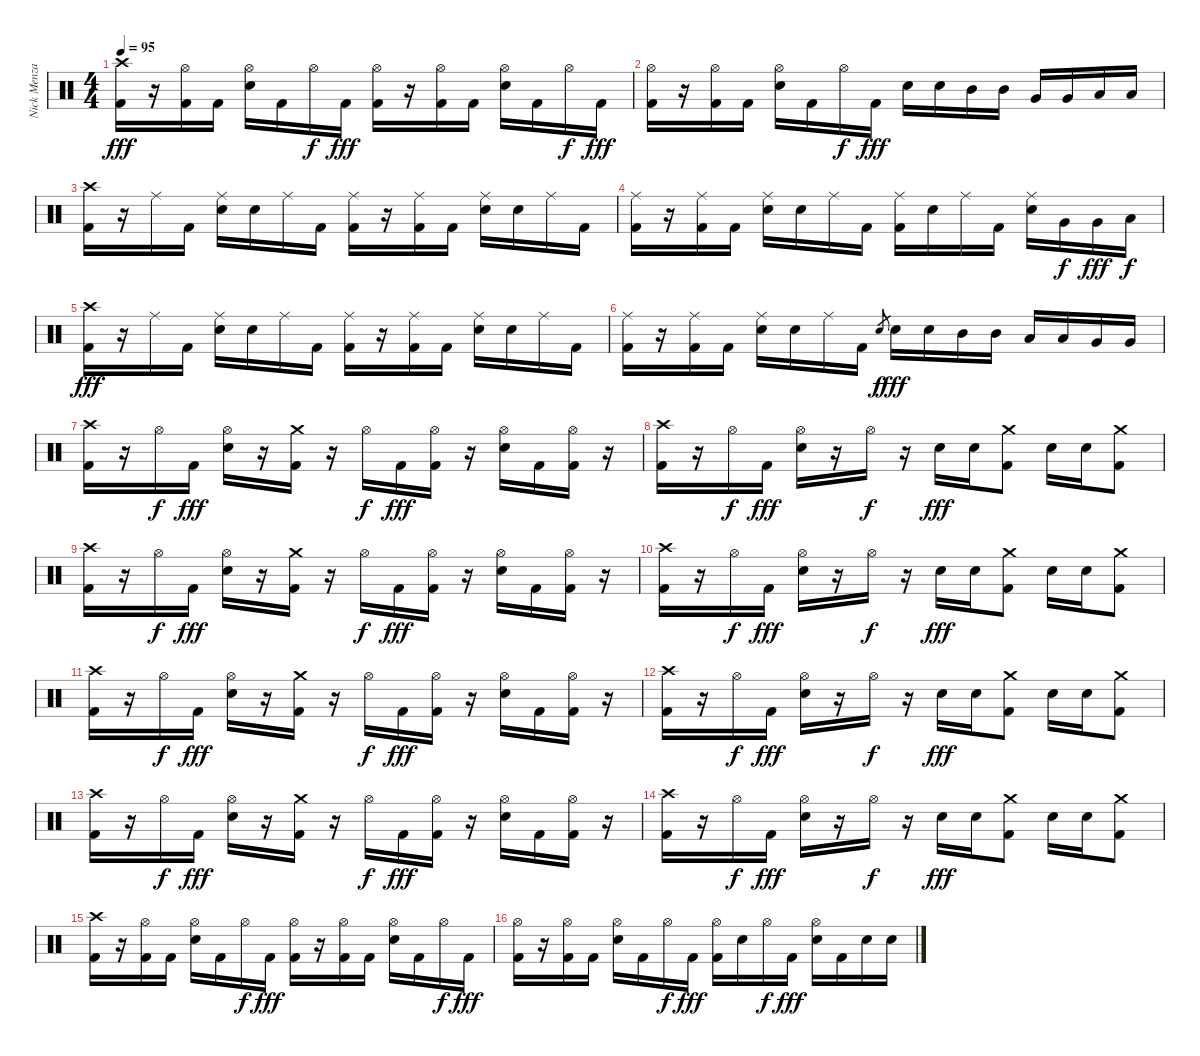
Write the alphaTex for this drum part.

\track ("Nick Menza" "Nick Menza") {instrument percussion}
\staff {score}
\articulation defaults
\ts (4 4)
\tempo 95
\clef neutral
\ks c
("Kick (hit) 2" "Crash high (hit)").16{dy fff} r.16 ("Kick (hit) 2" "Hi-Hat (open)").16 "Kick (hit) 2".16 ("Electric Snare (hit)" "Hi-Hat (open)").16 "Kick (hit) 2".16 "Hi-Hat (open)".16{dy f} "Kick (hit) 2".16{dy fff} ("Kick (hit) 2" "Hi-Hat (open)").16 r.16 ("Kick (hit) 2" "Hi-Hat (open)").16 "Kick (hit) 2".16 ("Electric Snare (hit)" "Hi-Hat (open)").16 "Kick (hit) 2".16 "Hi-Hat (open)".16{dy f} "Kick (hit) 2".16{dy fff} |
("Kick (hit) 2" "Hi-Hat (open)").16 r.16 ("Kick (hit) 2" "Hi-Hat (open)").16 "Kick (hit) 2".16 ("Electric Snare (hit)" "Hi-Hat (open)").16 "Kick (hit) 2".16 "Hi-Hat (open)".16{dy f} "Kick (hit) 2".16{dy fff} "Electric Snare (hit)".16 "Electric Snare (hit)".16 "Mid Tom (hit)".16 "Mid Tom (hit)".16 "Very Low Tom (hit)".16 "Very Low Tom (hit)".16 "Low Floor Tom (hit)".16 "Low Floor Tom (hit)".16 |
("Kick (hit) 2" "Crash high (hit)").16 r.16 "Ride (middle)".16 "Kick (hit) 2".16 ("Electric Snare (hit)" "Ride (middle)").16 "Electric Snare (hit)".16 "Ride (middle)".16 "Kick (hit) 2".16 ("Kick (hit) 2" "Ride (middle)").16 r.16 ("Kick (hit) 2" "Ride (middle)").16 "Kick (hit) 2".16 ("Electric Snare (hit)" "Ride (middle)").16 "Electric Snare (hit)".16 "Ride (middle)".16 "Kick (hit) 2".16 |
("Kick (hit) 2" "Ride (middle)").16 r.16 ("Kick (hit) 2" "Ride (middle)").16 "Kick (hit) 2".16 ("Electric Snare (hit)" "Ride (middle)").16 "Electric Snare (hit)".16 "Ride (middle)".16 "Kick (hit) 2".16 ("Kick (hit) 2" "Ride (middle)").16 "Electric Snare (hit)".16 "Ride (middle)".16 "Kick (hit) 2".16 ("Electric Snare (hit)" "Ride (middle)").16 "Very Low Tom (hit)".16{dy f} "Very Low Tom (hit)".16{dy fff} "Low Floor Tom (hit)".16{dy f} |
("Kick (hit) 2" "Crash high (hit)").16{dy fff} r.16 "Ride (middle)".16 "Kick (hit) 2".16 ("Electric Snare (hit)" "Ride (middle)").16 "Electric Snare (hit)".16 "Ride (middle)".16 "Kick (hit) 2".16 ("Kick (hit) 2" "Ride (middle)").16 r.16 ("Kick (hit) 2" "Ride (middle)").16 "Kick (hit) 2".16 ("Electric Snare (hit)" "Ride (middle)").16 "Electric Snare (hit)".16 "Ride (middle)".16 "Kick (hit) 2".16 |
("Kick (hit) 2" "Ride (middle)").16 r.16 ("Kick (hit) 2" "Ride (middle)").16 "Kick (hit) 2".16 ("Electric Snare (hit)" "Ride (middle)").16 "Electric Snare (hit)".16 "Ride (middle)".16 "Kick (hit) 2".16 "Electric Snare (hit)".8{gr dy f} "Electric Snare (hit)".16{dy fff} "Electric Snare (hit)".16 "Mid Tom (hit)".16 "Mid Tom (hit)".16 "Low Tom (hit)".16 "Low Tom (hit)".16 "Very Low Tom (hit)".16 "Very Low Tom (hit)".16 |
("Kick (hit) 2" "Crash high (hit)").16 r.16 "Hi-Hat (open)".16{dy f} "Kick (hit) 2".16{dy fff} ("Electric Snare (hit)" "Hi-Hat (open)").16 r.16 ("Kick (hit) 2" "Crash medium (hit)").16 r.16 "Hi-Hat (open)".16{dy f} "Kick (hit) 2".16{dy fff} ("Kick (hit) 2" "Hi-Hat (open)").16 r.16 ("Electric Snare (hit)" "Hi-Hat (open)").16 "Kick (hit) 2".16 ("Kick (hit) 2" "Hi-Hat (open)").16 r.16 |
("Kick (hit) 2" "Crash high (hit)").16 r.16 "Hi-Hat (open)".16{dy f} "Kick (hit) 2".16{dy fff} ("Electric Snare (hit)" "Hi-Hat (open)").16 r.16 "Hi-Hat (open)".16{dy f} r.16 "Electric Snare (hit)".16{dy fff} "Electric Snare (hit)".16 ("Kick (hit) 2" "Crash medium (hit)").8 "Electric Snare (hit)".16 "Electric Snare (hit)".16 ("Kick (hit) 2" "Crash medium (hit)").8 |
("Kick (hit) 2" "Crash high (hit)").16 r.16 "Hi-Hat (open)".16{dy f} "Kick (hit) 2".16{dy fff} ("Electric Snare (hit)" "Hi-Hat (open)").16 r.16 ("Kick (hit) 2" "Crash medium (hit)").16 r.16 "Hi-Hat (open)".16{dy f} "Kick (hit) 2".16{dy fff} ("Kick (hit) 2" "Hi-Hat (open)").16 r.16 ("Electric Snare (hit)" "Hi-Hat (open)").16 "Kick (hit) 2".16 ("Kick (hit) 2" "Hi-Hat (open)").16 r.16 |
("Kick (hit) 2" "Crash high (hit)").16 r.16 "Hi-Hat (open)".16{dy f} "Kick (hit) 2".16{dy fff} ("Electric Snare (hit)" "Hi-Hat (open)").16 r.16 "Hi-Hat (open)".16{dy f} r.16 "Electric Snare (hit)".16{dy fff} "Electric Snare (hit)".16 ("Kick (hit) 2" "Crash medium (hit)").8 "Electric Snare (hit)".16 "Electric Snare (hit)".16 ("Kick (hit) 2" "Crash medium (hit)").8 |
("Kick (hit) 2" "Crash high (hit)").16 r.16 "Hi-Hat (open)".16{dy f} "Kick (hit) 2".16{dy fff} ("Electric Snare (hit)" "Hi-Hat (open)").16 r.16 ("Kick (hit) 2" "Crash medium (hit)").16 r.16 "Hi-Hat (open)".16{dy f} "Kick (hit) 2".16{dy fff} ("Kick (hit) 2" "Hi-Hat (open)").16 r.16 ("Electric Snare (hit)" "Hi-Hat (open)").16 "Kick (hit) 2".16 ("Kick (hit) 2" "Hi-Hat (open)").16 r.16 |
("Kick (hit) 2" "Crash high (hit)").16 r.16 "Hi-Hat (open)".16{dy f} "Kick (hit) 2".16{dy fff} ("Electric Snare (hit)" "Hi-Hat (open)").16 r.16 "Hi-Hat (open)".16{dy f} r.16 "Electric Snare (hit)".16{dy fff} "Electric Snare (hit)".16 ("Kick (hit) 2" "Crash medium (hit)").8 "Electric Snare (hit)".16 "Electric Snare (hit)".16 ("Kick (hit) 2" "Crash medium (hit)").8 |
("Kick (hit) 2" "Crash high (hit)").16 r.16 "Hi-Hat (open)".16{dy f} "Kick (hit) 2".16{dy fff} ("Electric Snare (hit)" "Hi-Hat (open)").16 r.16 ("Kick (hit) 2" "Crash medium (hit)").16 r.16 "Hi-Hat (open)".16{dy f} "Kick (hit) 2".16{dy fff} ("Kick (hit) 2" "Hi-Hat (open)").16 r.16 ("Electric Snare (hit)" "Hi-Hat (open)").16 "Kick (hit) 2".16 ("Kick (hit) 2" "Hi-Hat (open)").16 r.16 |
("Kick (hit) 2" "Crash high (hit)").16 r.16 "Hi-Hat (open)".16{dy f} "Kick (hit) 2".16{dy fff} ("Electric Snare (hit)" "Hi-Hat (open)").16 r.16 "Hi-Hat (open)".16{dy f} r.16 "Electric Snare (hit)".16{dy fff} "Electric Snare (hit)".16 ("Kick (hit) 2" "Crash medium (hit)").8 "Electric Snare (hit)".16 "Electric Snare (hit)".16 ("Kick (hit) 2" "Crash medium (hit)").8 |
("Kick (hit) 2" "Crash high (hit)").16 r.16 ("Kick (hit) 2" "Hi-Hat (open)").16 "Kick (hit) 2".16 ("Electric Snare (hit)" "Hi-Hat (open)").16 "Kick (hit) 2".16 "Hi-Hat (open)".16{dy f} "Kick (hit) 2".16{dy fff} ("Kick (hit) 2" "Hi-Hat (open)").16 r.16 ("Kick (hit) 2" "Hi-Hat (open)").16 "Kick (hit) 2".16 ("Electric Snare (hit)" "Hi-Hat (open)").16 "Kick (hit) 2".16 "Hi-Hat (open)".16{dy f} "Kick (hit) 2".16{dy fff} |
("Kick (hit) 2" "Hi-Hat (open)").16 r.16 ("Kick (hit) 2" "Hi-Hat (open)").16 "Kick (hit) 2".16 ("Electric Snare (hit)" "Hi-Hat (open)").16 "Kick (hit) 2".16 "Hi-Hat (open)".16{dy f} "Kick (hit) 2".16{dy fff} ("Kick (hit) 2" "Hi-Hat (open)").16 "Electric Snare (hit)".16 "Hi-Hat (open)".16{dy f} "Kick (hit) 2".16{dy fff} ("Electric Snare (hit)" "Hi-Hat (open)").16 "Kick (hit) 2".16 "Electric Snare (hit)".16 "Electric Snare (hit)".16
